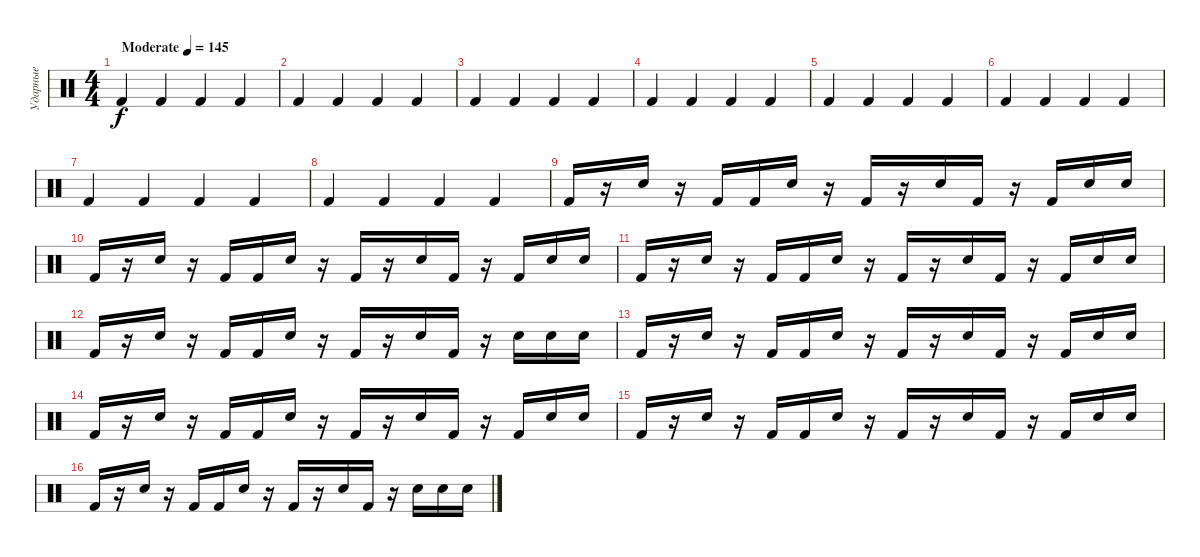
\track ("Ударные" "Ударные") {instrument percussion}
\staff {score}
\articulation defaults
\ts (4 4)
\tempo (145 "Moderate")
\clef neutral
\ks c "Kick (hit) 2".4{dy f} "Kick (hit) 2".4 "Kick (hit) 2".4 "Kick (hit) 2".4
|
"Kick (hit) 2".4 "Kick (hit) 2".4 "Kick (hit) 2".4 "Kick (hit) 2".4 |
"Kick (hit) 2".4 "Kick (hit) 2".4 "Kick (hit) 2".4 "Kick (hit) 2".4 |
"Kick (hit) 2".4 "Kick (hit) 2".4 "Kick (hit) 2".4 "Kick (hit) 2".4 |
"Kick (hit) 2".4 "Kick (hit) 2".4 "Kick (hit) 2".4 "Kick (hit) 2".4 |
"Kick (hit) 2".4 "Kick (hit) 2".4 "Kick (hit) 2".4 "Kick (hit) 2".4 |
"Kick (hit) 2".4 "Kick (hit) 2".4 "Kick (hit) 2".4 "Kick (hit) 2".4 |
"Kick (hit) 2".4 "Kick (hit) 2".4 "Kick (hit) 2".4 "Kick (hit) 2".4 |
"Kick (hit) 2".16 r.16 "Electric Snare (hit)".16 r.16 "Kick (hit) 2".16 "Kick (hit) 2".16 "Electric Snare (hit)".16 r.16 "Kick (hit) 2".16 r.16 "Electric Snare (hit)".16 "Kick (hit) 2".16 r.16 "Kick (hit) 2".16 "Electric Snare (hit)".16 "Electric Snare (hit)".16 |
"Kick (hit) 2".16 r.16 "Electric Snare (hit)".16 r.16 "Kick (hit) 2".16 "Kick (hit) 2".16 "Electric Snare (hit)".16 r.16 "Kick (hit) 2".16 r.16 "Electric Snare (hit)".16 "Kick (hit) 2".16 r.16 "Kick (hit) 2".16 "Electric Snare (hit)".16 "Electric Snare (hit)".16 |
"Kick (hit) 2".16 r.16 "Electric Snare (hit)".16 r.16 "Kick (hit) 2".16 "Kick (hit) 2".16 "Electric Snare (hit)".16 r.16 "Kick (hit) 2".16 r.16 "Electric Snare (hit)".16 "Kick (hit) 2".16 r.16 "Kick (hit) 2".16 "Electric Snare (hit)".16 "Electric Snare (hit)".16 |
"Kick (hit) 2".16 r.16 "Electric Snare (hit)".16 r.16 "Kick (hit) 2".16 "Kick (hit) 2".16 "Electric Snare (hit)".16 r.16 "Kick (hit) 2".16 r.16 "Electric Snare (hit)".16 "Kick (hit) 2".16 r.16 "Electric Snare (hit)".16 "Electric Snare (hit)".16 "Electric Snare (hit)".16 |
"Kick (hit) 2".16 r.16 "Electric Snare (hit)".16 r.16 "Kick (hit) 2".16 "Kick (hit) 2".16 "Electric Snare (hit)".16 r.16 "Kick (hit) 2".16 r.16 "Electric Snare (hit)".16 "Kick (hit) 2".16 r.16 "Kick (hit) 2".16 "Electric Snare (hit)".16 "Electric Snare (hit)".16 |
"Kick (hit) 2".16 r.16 "Electric Snare (hit)".16 r.16 "Kick (hit) 2".16 "Kick (hit) 2".16 "Electric Snare (hit)".16 r.16 "Kick (hit) 2".16 r.16 "Electric Snare (hit)".16 "Kick (hit) 2".16 r.16 "Kick (hit) 2".16 "Electric Snare (hit)".16 "Electric Snare (hit)".16 |
"Kick (hit) 2".16 r.16 "Electric Snare (hit)".16 r.16 "Kick (hit) 2".16 "Kick (hit) 2".16 "Electric Snare (hit)".16 r.16 "Kick (hit) 2".16 r.16 "Electric Snare (hit)".16 "Kick (hit) 2".16 r.16 "Kick (hit) 2".16 "Electric Snare (hit)".16 "Electric Snare (hit)".16 |
"Kick (hit) 2".16 r.16 "Electric Snare (hit)".16 r.16 "Kick (hit) 2".16 "Kick (hit) 2".16 "Electric Snare (hit)".16 r.16 "Kick (hit) 2".16 r.16 "Electric Snare (hit)".16 "Kick (hit) 2".16 r.16 "Electric Snare (hit)".16 "Electric Snare (hit)".16 "Electric Snare (hit)".16
